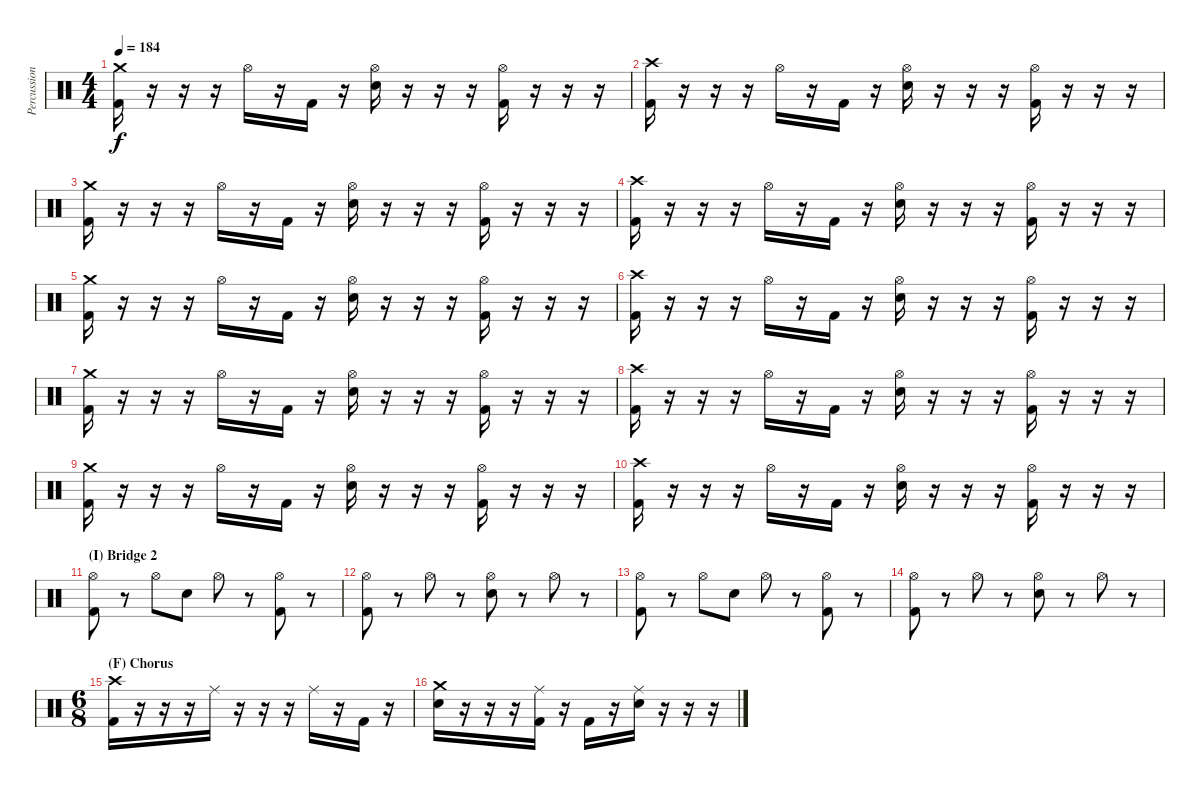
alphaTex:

\track ("Percussion" "Percussion") {instrument percussion}
\staff {score}
\articulation defaults
\ts (4 4)
\tempo 184
\clef neutral
\ks c
("Crash medium (hit)" "Kick (hit) 2").16{dy f} r.16 r.16 r.16 "Hi-Hat (open)".16 r.16 "Kick (hit) 2".16 r.16 ("Hi-Hat (open)" "Electric Snare (hit)").16 r.16 r.16 r.16 ("Hi-Hat (open)" "Kick (hit) 2").16 r.16 r.16 r.16 |
("Crash high (hit)" "Kick (hit) 2").16 r.16 r.16 r.16 "Hi-Hat (open)".16 r.16 "Kick (hit) 2".16 r.16 ("Hi-Hat (open)" "Electric Snare (hit)").16 r.16 r.16 r.16 ("Hi-Hat (open)" "Kick (hit) 2").16 r.16 r.16 r.16 |
("Crash medium (hit)" "Kick (hit) 2").16 r.16 r.16 r.16 "Hi-Hat (open)".16 r.16 "Kick (hit) 2".16 r.16 ("Hi-Hat (open)" "Electric Snare (hit)").16 r.16 r.16 r.16 ("Hi-Hat (open)" "Kick (hit) 2").16 r.16 r.16 r.16 |
("Crash high (hit)" "Kick (hit) 2").16 r.16 r.16 r.16 "Hi-Hat (open)".16 r.16 "Kick (hit) 2".16 r.16 ("Hi-Hat (open)" "Electric Snare (hit)").16 r.16 r.16 r.16 ("Hi-Hat (open)" "Kick (hit) 2").16 r.16 r.16 r.16 |
("Crash medium (hit)" "Kick (hit) 2").16 r.16 r.16 r.16 "Hi-Hat (open)".16 r.16 "Kick (hit) 2".16 r.16 ("Hi-Hat (open)" "Electric Snare (hit)").16 r.16 r.16 r.16 ("Hi-Hat (open)" "Kick (hit) 2").16 r.16 r.16 r.16 |
("Crash high (hit)" "Kick (hit) 2").16 r.16 r.16 r.16 "Hi-Hat (open)".16 r.16 "Kick (hit) 2".16 r.16 ("Hi-Hat (open)" "Electric Snare (hit)").16 r.16 r.16 r.16 ("Hi-Hat (open)" "Kick (hit) 2").16 r.16 r.16 r.16 |
("Crash medium (hit)" "Kick (hit) 2").16 r.16 r.16 r.16 "Hi-Hat (open)".16 r.16 "Kick (hit) 2".16 r.16 ("Hi-Hat (open)" "Electric Snare (hit)").16 r.16 r.16 r.16 ("Hi-Hat (open)" "Kick (hit) 2").16 r.16 r.16 r.16 |
("Crash high (hit)" "Kick (hit) 2").16 r.16 r.16 r.16 "Hi-Hat (open)".16 r.16 "Kick (hit) 2".16 r.16 ("Hi-Hat (open)" "Electric Snare (hit)").16 r.16 r.16 r.16 ("Hi-Hat (open)" "Kick (hit) 2").16 r.16 r.16 r.16 |
("Crash medium (hit)" "Kick (hit) 2").16 r.16 r.16 r.16 "Hi-Hat (open)".16 r.16 "Kick (hit) 2".16 r.16 ("Hi-Hat (open)" "Electric Snare (hit)").16 r.16 r.16 r.16 ("Hi-Hat (open)" "Kick (hit) 2").16 r.16 r.16 r.16 |
("Crash high (hit)" "Kick (hit) 2").16 r.16 r.16 r.16 "Hi-Hat (open)".16 r.16 "Kick (hit) 2".16 r.16 ("Hi-Hat (open)" "Electric Snare (hit)").16 r.16 r.16 r.16 ("Hi-Hat (open)" "Kick (hit) 2").16 r.16 r.16 r.16 |
\section ("" "(I) Bridge 2")
("Hi-Hat (open)" "Kick (hit) 2").8 r.8 "Hi-Hat (open)".8 "Electric Snare (hit)".8 "Hi-Hat (open)".8 r.8 ("Hi-Hat (open)" "Kick (hit) 2").8 r.8 |
("Hi-Hat (open)" "Kick (hit) 2").8 r.8 "Hi-Hat (open)".8 r.8 ("Hi-Hat (open)" "Electric Snare (hit)").8 r.8 "Hi-Hat (open)".8 r.8 |
("Hi-Hat (open)" "Kick (hit) 2").8 r.8 "Hi-Hat (open)".8 "Electric Snare (hit)".8 "Hi-Hat (open)".8 r.8 ("Hi-Hat (open)" "Kick (hit) 2").8 r.8 |
("Hi-Hat (open)" "Kick (hit) 2").8 r.8 "Hi-Hat (open)".8 r.8 ("Hi-Hat (open)" "Electric Snare (hit)").8 r.8 "Hi-Hat (open)".8 r.8 |
\ts (6 8)
\section ("" "(F) Chorus")
("Crash high (hit)" "Kick (hit) 2").16 r.16 r.16 r.16 "Ride (middle)".16 r.16 r.16 r.16 "Ride (middle)".16 r.16 "Kick (hit) 2".16 r.16 |
("Crash medium (hit)" "Electric Snare (hit)").16 r.16 r.16 r.16 ("Ride (middle)" "Kick (hit) 2").16 r.16 "Kick (hit) 2".16 r.16 ("Ride (middle)" "Electric Snare (hit)").16 r.16 r.16 r.16
